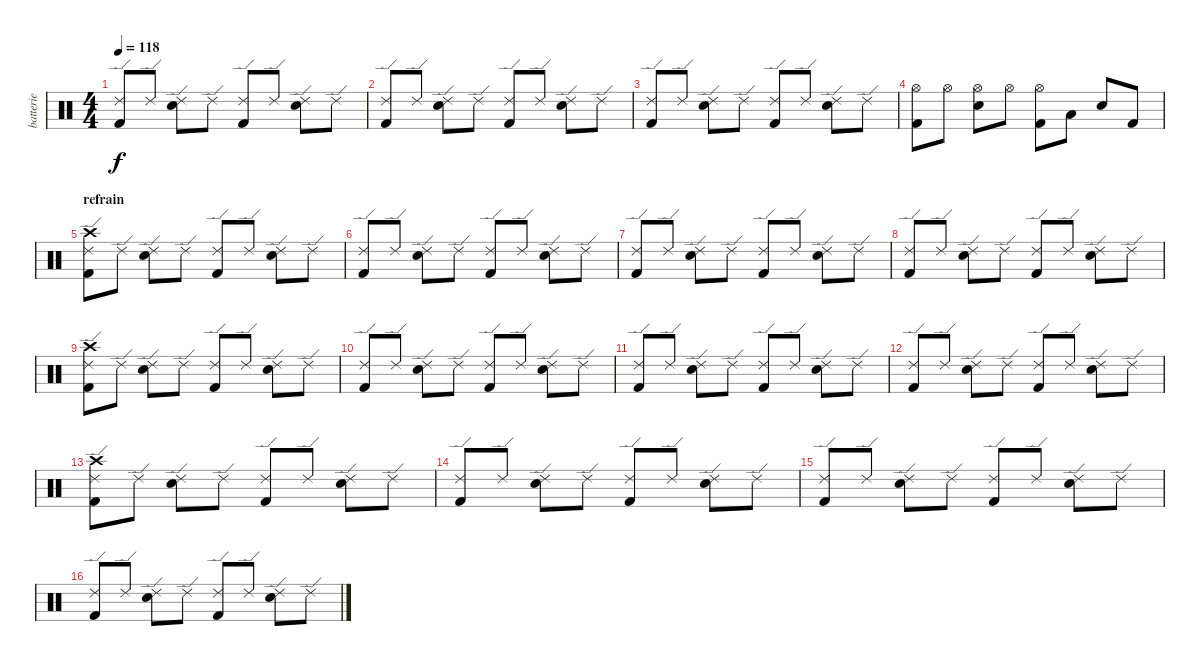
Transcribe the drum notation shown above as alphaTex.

\track ("batterie" "batterie") {instrument percussion}
\staff {score}
\articulation defaults
\ts (4 4)
\tempo 118
\clef neutral
\ks c
("Ride (edge) 2" "Kick (hit) 2").8{dy f} "Ride (edge) 2".8 ("Ride (edge) 2" "Electric Snare (hit)").8 "Ride (edge) 2".8 ("Ride (edge) 2" "Kick (hit) 2").8 "Ride (edge) 2".8 ("Ride (edge) 2" "Electric Snare (hit)").8 "Ride (edge) 2".8 |
("Ride (edge) 2" "Kick (hit) 2").8 "Ride (edge) 2".8 ("Ride (edge) 2" "Electric Snare (hit)").8 "Ride (edge) 2".8 ("Ride (edge) 2" "Kick (hit) 2").8 "Ride (edge) 2".8 ("Ride (edge) 2" "Electric Snare (hit)").8 "Ride (edge) 2".8 |
("Ride (edge) 2" "Kick (hit) 2").8 "Ride (edge) 2".8 ("Ride (edge) 2" "Electric Snare (hit)").8 "Ride (edge) 2".8 ("Ride (edge) 2" "Kick (hit) 2").8 "Ride (edge) 2".8 ("Ride (edge) 2" "Electric Snare (hit)").8 "Ride (edge) 2".8 |
("Hi-Hat (open)" "Kick (hit) 2").8 "Hi-Hat (open)".8 ("Hi-Hat (open)" "Electric Snare (hit)").8 "Hi-Hat (open)".8 ("Hi-Hat (open)" "Kick (hit) 2").8 "Low Tom (hit)".8 "Electric Snare (hit)".8 "Kick (hit) 2".8 |
\section ("" "refrain")
("Crash high (hit)" "Ride (edge) 2" "Kick (hit) 2").8 "Ride (edge) 2".8 ("Ride (edge) 2" "Electric Snare (hit)").8 "Ride (edge) 2".8 ("Ride (edge) 2" "Kick (hit) 2").8 "Ride (edge) 2".8 ("Ride (edge) 2" "Electric Snare (hit)").8 "Ride (edge) 2".8 |
("Ride (edge) 2" "Kick (hit) 2").8 "Ride (edge) 2".8 ("Ride (edge) 2" "Electric Snare (hit)").8 "Ride (edge) 2".8 ("Ride (edge) 2" "Kick (hit) 2").8 "Ride (edge) 2".8 ("Ride (edge) 2" "Electric Snare (hit)").8 "Ride (edge) 2".8 |
("Ride (edge) 2" "Kick (hit) 2").8 "Ride (edge) 2".8 ("Ride (edge) 2" "Electric Snare (hit)").8 "Ride (edge) 2".8 ("Ride (edge) 2" "Kick (hit) 2").8 "Ride (edge) 2".8 ("Ride (edge) 2" "Electric Snare (hit)").8 "Ride (edge) 2".8 |
("Ride (edge) 2" "Kick (hit) 2").8 "Ride (edge) 2".8 ("Ride (edge) 2" "Electric Snare (hit)").8 "Ride (edge) 2".8 ("Ride (edge) 2" "Kick (hit) 2").8 "Ride (edge) 2".8 ("Ride (edge) 2" "Electric Snare (hit)").8 "Ride (edge) 2".8 |
("Crash high (hit)" "Ride (edge) 2" "Kick (hit) 2").8 "Ride (edge) 2".8 ("Ride (edge) 2" "Electric Snare (hit)").8 "Ride (edge) 2".8 ("Ride (edge) 2" "Kick (hit) 2").8 "Ride (edge) 2".8 ("Ride (edge) 2" "Electric Snare (hit)").8 "Ride (edge) 2".8 |
("Ride (edge) 2" "Kick (hit) 2").8 "Ride (edge) 2".8 ("Ride (edge) 2" "Electric Snare (hit)").8 "Ride (edge) 2".8 ("Ride (edge) 2" "Kick (hit) 2").8 "Ride (edge) 2".8 ("Ride (edge) 2" "Electric Snare (hit)").8 "Ride (edge) 2".8 |
("Ride (edge) 2" "Kick (hit) 2").8 "Ride (edge) 2".8 ("Ride (edge) 2" "Electric Snare (hit)").8 "Ride (edge) 2".8 ("Ride (edge) 2" "Kick (hit) 2").8 "Ride (edge) 2".8 ("Ride (edge) 2" "Electric Snare (hit)").8 "Ride (edge) 2".8 |
("Ride (edge) 2" "Kick (hit) 2").8 "Ride (edge) 2".8 ("Ride (edge) 2" "Electric Snare (hit)").8 "Ride (edge) 2".8 ("Ride (edge) 2" "Kick (hit) 2").8 "Ride (edge) 2".8 ("Ride (edge) 2" "Electric Snare (hit)").8 "Ride (edge) 2".8 |
("Crash high (hit)" "Ride (edge) 2" "Kick (hit) 2").8 "Ride (edge) 2".8 ("Ride (edge) 2" "Electric Snare (hit)").8 "Ride (edge) 2".8 ("Ride (edge) 2" "Kick (hit) 2").8 "Ride (edge) 2".8 ("Ride (edge) 2" "Electric Snare (hit)").8 "Ride (edge) 2".8 |
("Ride (edge) 2" "Kick (hit) 2").8 "Ride (edge) 2".8 ("Ride (edge) 2" "Electric Snare (hit)").8 "Ride (edge) 2".8 ("Ride (edge) 2" "Kick (hit) 2").8 "Ride (edge) 2".8 ("Ride (edge) 2" "Electric Snare (hit)").8 "Ride (edge) 2".8 |
("Ride (edge) 2" "Kick (hit) 2").8 "Ride (edge) 2".8 ("Ride (edge) 2" "Electric Snare (hit)").8 "Ride (edge) 2".8 ("Ride (edge) 2" "Kick (hit) 2").8 "Ride (edge) 2".8 ("Ride (edge) 2" "Electric Snare (hit)").8 "Ride (edge) 2".8 |
("Ride (edge) 2" "Kick (hit) 2").8 "Ride (edge) 2".8 ("Ride (edge) 2" "Electric Snare (hit)").8 "Ride (edge) 2".8 ("Ride (edge) 2" "Kick (hit) 2").8 "Ride (edge) 2".8 ("Ride (edge) 2" "Electric Snare (hit)").8 "Ride (edge) 2".8
